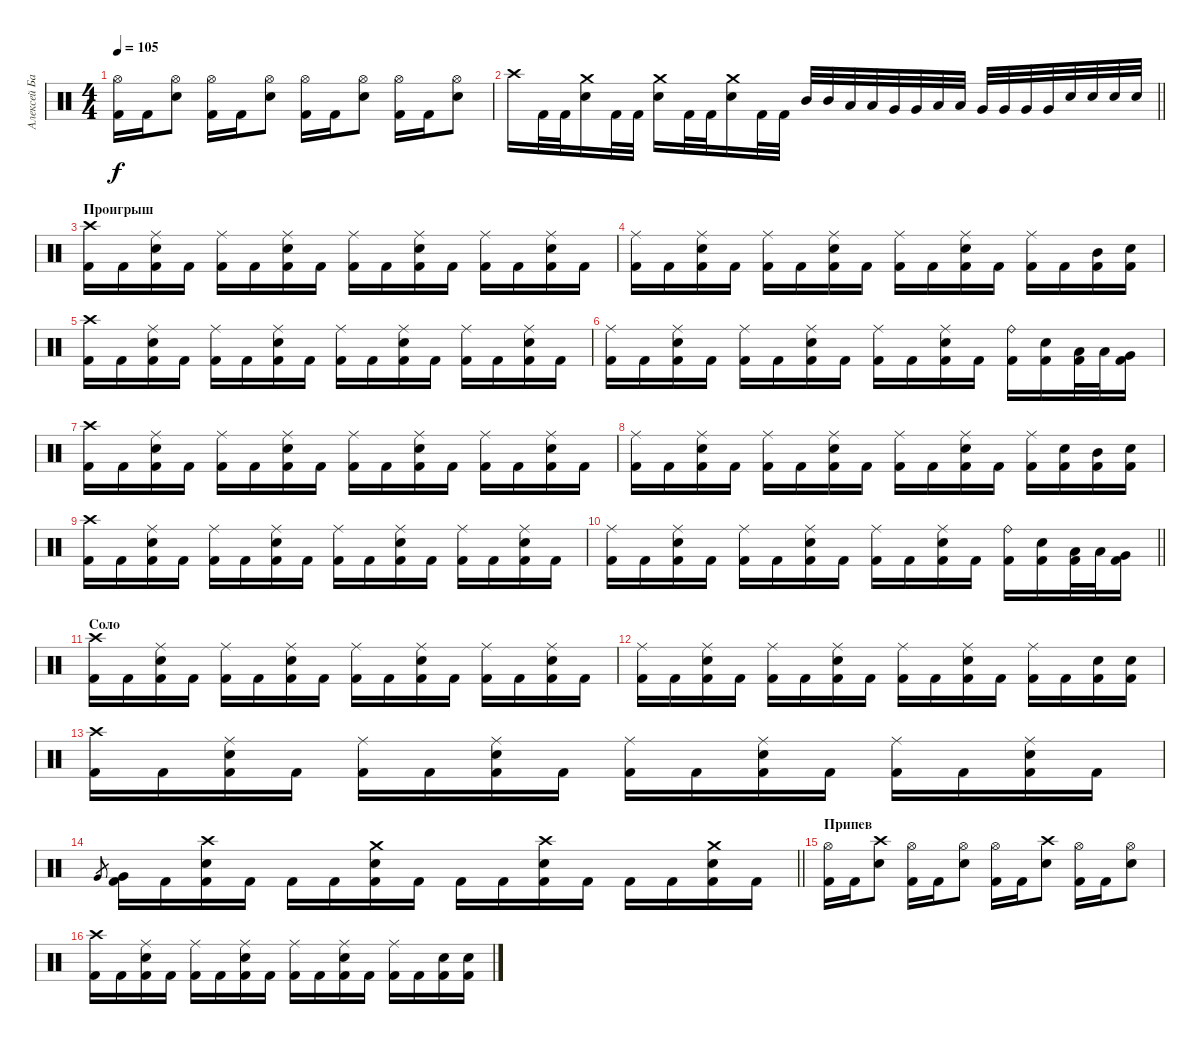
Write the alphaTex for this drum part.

\track ("Алексей Барзилович" "Алексей Ба") {instrument percussion}
\staff {score}
\articulation defaults
\ts (4 4)
\tempo 105
\clef neutral
\ks c
("Hi-Hat (open)" "Kick (hit) 2").16{dy f} "Kick (hit) 2".16 ("Hi-Hat (open)" "Electric Snare (hit)").8 ("Hi-Hat (open)" "Kick (hit) 2").16 "Kick (hit) 2".16 ("Hi-Hat (open)" "Electric Snare (hit)").8 ("Hi-Hat (open)" "Kick (hit) 2").16 "Kick (hit) 2".16 ("Hi-Hat (open)" "Electric Snare (hit)").8 ("Hi-Hat (open)" "Kick (hit) 2").16 "Kick (hit) 2".16 ("Hi-Hat (open)" "Electric Snare (hit)").8 |
\barLineRight lightlight "Crash high (hit)".16 "Kick (hit) 2".32 "Kick (hit) 2".32
("Crash medium (hit)" "Electric Snare (hit)").16 "Kick (hit) 2".32 "Kick (hit) 2".32 ("Crash medium (hit)" "Electric Snare (hit)").16 "Kick (hit) 2".32 "Kick (hit) 2".32 ("Crash medium (hit)" "Electric Snare (hit)").16 "Kick (hit) 2".32 "Kick (hit) 2".32 "Mid Tom (hit)".32 "Mid Tom (hit)".32 "Low Tom (hit)".32 "Low Tom (hit)".32 "Very Low Tom (hit)".32 "Very Low Tom (hit)".32 "Low Tom (hit)".32 "Low Tom (hit)".32 "Very Low Tom (hit)".32 "Very Low Tom (hit)".32 "Very Low Tom (hit)".32 "Very Low Tom (hit)".32 "Electric Snare (hit)".32 "Electric Snare (hit)".32 "Electric Snare (hit)".32 "Electric Snare (hit)".32 |
\section ("" "Проигрыш")
("Crash high (hit)" "Kick (hit) 2").16 "Kick (hit) 2".16 ("Ride (middle)" "Electric Snare (hit)" "Kick (hit) 2").16 "Kick (hit) 2".16 ("Ride (middle)" "Kick (hit) 2").16 "Kick (hit) 2".16 ("Ride (middle)" "Electric Snare (hit)" "Kick (hit) 2").16 "Kick (hit) 2".16 ("Ride (middle)" "Kick (hit) 2").16 "Kick (hit) 2".16 ("Ride (middle)" "Electric Snare (hit)" "Kick (hit) 2").16 "Kick (hit) 2".16 ("Ride (middle)" "Kick (hit) 2").16 "Kick (hit) 2".16 ("Ride (middle)" "Electric Snare (hit)" "Kick (hit) 2").16 "Kick (hit) 2".16 |
("Ride (middle)" "Kick (hit) 2").16 "Kick (hit) 2".16 ("Ride (middle)" "Electric Snare (hit)" "Kick (hit) 2").16 "Kick (hit) 2".16 ("Ride (middle)" "Kick (hit) 2").16 "Kick (hit) 2".16 ("Ride (middle)" "Electric Snare (hit)" "Kick (hit) 2").16 "Kick (hit) 2".16 ("Ride (middle)" "Kick (hit) 2").16 "Kick (hit) 2".16 ("Ride (middle)" "Electric Snare (hit)" "Kick (hit) 2").16 "Kick (hit) 2".16 ("Ride (middle)" "Kick (hit) 2").16 "Kick (hit) 2".16 ("Mid Tom (hit)" "Kick (hit) 2").16 ("Electric Snare (hit)" "Kick (hit) 2").16 |
("Crash high (hit)" "Kick (hit) 2").16 "Kick (hit) 2".16 ("Ride (middle)" "Electric Snare (hit)" "Kick (hit) 2").16 "Kick (hit) 2".16 ("Ride (middle)" "Kick (hit) 2").16 "Kick (hit) 2".16 ("Ride (middle)" "Electric Snare (hit)" "Kick (hit) 2").16 "Kick (hit) 2".16 ("Ride (middle)" "Kick (hit) 2").16 "Kick (hit) 2".16 ("Ride (middle)" "Electric Snare (hit)" "Kick (hit) 2").16 "Kick (hit) 2".16 ("Ride (middle)" "Kick (hit) 2").16 "Kick (hit) 2".16 ("Ride (middle)" "Electric Snare (hit)" "Kick (hit) 2").16 "Kick (hit) 2".16 |
("Ride (middle)" "Kick (hit) 2").16 "Kick (hit) 2".16 ("Ride (middle)" "Electric Snare (hit)" "Kick (hit) 2").16 "Kick (hit) 2".16 ("Ride (middle)" "Kick (hit) 2").16 "Kick (hit) 2".16 ("Ride (middle)" "Electric Snare (hit)" "Kick (hit) 2").16 "Kick (hit) 2".16 ("Ride (middle)" "Kick (hit) 2").16 "Kick (hit) 2".16 ("Ride (middle)" "Electric Snare (hit)" "Kick (hit) 2").16 "Kick (hit) 2".16 ("Ride (bell)" "Kick (hit) 2").16 ("Electric Snare (hit)" "Kick (hit) 2").16 ("Low Tom (hit)" "Kick (hit) 2").32 "Low Tom (hit)".32 ("Very Low Tom (hit)" "Kick (hit) 2").16 |
("Crash high (hit)" "Kick (hit) 2").16 "Kick (hit) 2".16 ("Ride (middle)" "Electric Snare (hit)" "Kick (hit) 2").16 "Kick (hit) 2".16 ("Ride (middle)" "Kick (hit) 2").16 "Kick (hit) 2".16 ("Ride (middle)" "Electric Snare (hit)" "Kick (hit) 2").16 "Kick (hit) 2".16 ("Ride (middle)" "Kick (hit) 2").16 "Kick (hit) 2".16 ("Ride (middle)" "Electric Snare (hit)" "Kick (hit) 2").16 "Kick (hit) 2".16 ("Ride (middle)" "Kick (hit) 2").16 "Kick (hit) 2".16 ("Ride (middle)" "Electric Snare (hit)" "Kick (hit) 2").16 "Kick (hit) 2".16 |
("Ride (middle)" "Kick (hit) 2").16 "Kick (hit) 2".16 ("Ride (middle)" "Electric Snare (hit)" "Kick (hit) 2").16 "Kick (hit) 2".16 ("Ride (middle)" "Kick (hit) 2").16 "Kick (hit) 2".16 ("Ride (middle)" "Electric Snare (hit)" "Kick (hit) 2").16 "Kick (hit) 2".16 ("Ride (middle)" "Kick (hit) 2").16 "Kick (hit) 2".16 ("Ride (middle)" "Electric Snare (hit)" "Kick (hit) 2").16 "Kick (hit) 2".16 ("Ride (middle)" "Kick (hit) 2").16 ("Electric Snare (hit)" "Kick (hit) 2").16 ("Mid Tom (hit)" "Kick (hit) 2").16 ("Electric Snare (hit)" "Kick (hit) 2").16 |
("Crash high (hit)" "Kick (hit) 2").16 "Kick (hit) 2".16 ("Ride (middle)" "Electric Snare (hit)" "Kick (hit) 2").16 "Kick (hit) 2".16 ("Ride (middle)" "Kick (hit) 2").16 "Kick (hit) 2".16 ("Ride (middle)" "Electric Snare (hit)" "Kick (hit) 2").16 "Kick (hit) 2".16 ("Ride (middle)" "Kick (hit) 2").16 "Kick (hit) 2".16 ("Ride (middle)" "Electric Snare (hit)" "Kick (hit) 2").16 "Kick (hit) 2".16 ("Ride (middle)" "Kick (hit) 2").16 "Kick (hit) 2".16 ("Ride (middle)" "Electric Snare (hit)" "Kick (hit) 2").16 "Kick (hit) 2".16 |
\barLineRight lightlight
("Ride (middle)" "Kick (hit) 2").16 "Kick (hit) 2".16 ("Ride (middle)" "Electric Snare (hit)" "Kick (hit) 2").16 "Kick (hit) 2".16 ("Ride (middle)" "Kick (hit) 2").16 "Kick (hit) 2".16 ("Ride (middle)" "Electric Snare (hit)" "Kick (hit) 2").16 "Kick (hit) 2".16 ("Ride (middle)" "Kick (hit) 2").16 "Kick (hit) 2".16 ("Ride (middle)" "Electric Snare (hit)" "Kick (hit) 2").16 "Kick (hit) 2".16 ("Ride (bell)" "Kick (hit) 2").16 ("Electric Snare (hit)" "Kick (hit) 2").16 ("Low Tom (hit)" "Kick (hit) 2").32 "Low Tom (hit)".32 ("Very Low Tom (hit)" "Kick (hit) 2").16 |
\section ("" "Соло")
("Crash high (hit)" "Kick (hit) 2").16 "Kick (hit) 2".16 ("Ride (middle)" "Electric Snare (hit)" "Kick (hit) 2").16 "Kick (hit) 2".16 ("Ride (middle)" "Kick (hit) 2").16 "Kick (hit) 2".16 ("Ride (middle)" "Electric Snare (hit)" "Kick (hit) 2").16 "Kick (hit) 2".16 ("Ride (middle)" "Kick (hit) 2").16 "Kick (hit) 2".16 ("Ride (middle)" "Electric Snare (hit)" "Kick (hit) 2").16 "Kick (hit) 2".16 ("Ride (middle)" "Kick (hit) 2").16 "Kick (hit) 2".16 ("Ride (middle)" "Electric Snare (hit)" "Kick (hit) 2").16 "Kick (hit) 2".16 |
("Ride (middle)" "Kick (hit) 2").16 "Kick (hit) 2".16 ("Ride (middle)" "Electric Snare (hit)" "Kick (hit) 2").16 "Kick (hit) 2".16 ("Ride (middle)" "Kick (hit) 2").16 "Kick (hit) 2".16 ("Ride (middle)" "Electric Snare (hit)" "Kick (hit) 2").16 "Kick (hit) 2".16 ("Ride (middle)" "Kick (hit) 2").16 "Kick (hit) 2".16 ("Ride (middle)" "Electric Snare (hit)" "Kick (hit) 2").16 "Kick (hit) 2".16 ("Ride (middle)" "Kick (hit) 2").16 "Kick (hit) 2".16 ("Electric Snare (hit)" "Kick (hit) 2").16 ("Electric Snare (hit)" "Kick (hit) 2").16 |
("Crash high (hit)" "Kick (hit) 2").16 "Kick (hit) 2".16 ("Ride (middle)" "Electric Snare (hit)" "Kick (hit) 2").16 "Kick (hit) 2".16 ("Ride (middle)" "Kick (hit) 2").16 "Kick (hit) 2".16 ("Ride (middle)" "Electric Snare (hit)" "Kick (hit) 2").16 "Kick (hit) 2".16 ("Ride (middle)" "Kick (hit) 2").16 "Kick (hit) 2".16 ("Ride (middle)" "Electric Snare (hit)" "Kick (hit) 2").16 "Kick (hit) 2".16 ("Ride (middle)" "Kick (hit) 2").16 "Kick (hit) 2".16 ("Ride (middle)" "Electric Snare (hit)" "Kick (hit) 2").16 "Kick (hit) 2".16 |
\barLineRight lightlight "Very Low Tom (hit)".8{gr}
("Very Low Tom (hit)" "Kick (hit) 2").16 "Kick (hit) 2".16 ("Crash high (hit)" "Electric Snare (hit)" "Kick (hit) 2").16 "Kick (hit) 2".16 "Kick (hit) 2".16 "Kick (hit) 2".16 ("Crash medium (hit)" "Electric Snare (hit)" "Kick (hit) 2").16 "Kick (hit) 2".16 "Kick (hit) 2".16 "Kick (hit) 2".16 ("Crash high (hit)" "Electric Snare (hit)" "Kick (hit) 2").16 "Kick (hit) 2".16 "Kick (hit) 2".16 "Kick (hit) 2".16 ("Crash medium (hit)" "Electric Snare (hit)" "Kick (hit) 2").16 "Kick (hit) 2".16 |
\section ("" "Припев")
("Hi-Hat (open)" "Kick (hit) 2").16 "Kick (hit) 2".16 ("Crash high (hit)" "Electric Snare (hit)").8 ("Hi-Hat (open)" "Kick (hit) 2").16 "Kick (hit) 2".16 ("Hi-Hat (open)" "Electric Snare (hit)").8 ("Hi-Hat (open)" "Kick (hit) 2").16 "Kick (hit) 2".16 ("Crash high (hit)" "Electric Snare (hit)").8 ("Hi-Hat (open)" "Kick (hit) 2").16 "Kick (hit) 2".16 ("Hi-Hat (open)" "Electric Snare (hit)").8 |
("Crash high (hit)" "Kick (hit) 2").16 "Kick (hit) 2".16 ("Ride (middle)" "Electric Snare (hit)" "Kick (hit) 2").16 "Kick (hit) 2".16 ("Ride (middle)" "Kick (hit) 2").16 "Kick (hit) 2".16 ("Ride (middle)" "Electric Snare (hit)" "Kick (hit) 2").16 "Kick (hit) 2".16 ("Ride (middle)" "Kick (hit) 2").16 "Kick (hit) 2".16 ("Ride (middle)" "Electric Snare (hit)" "Kick (hit) 2").16 "Kick (hit) 2".16 ("Ride (middle)" "Kick (hit) 2").16 "Kick (hit) 2".16 ("Electric Snare (hit)" "Kick (hit) 2").16 ("Electric Snare (hit)" "Kick (hit) 2").16
